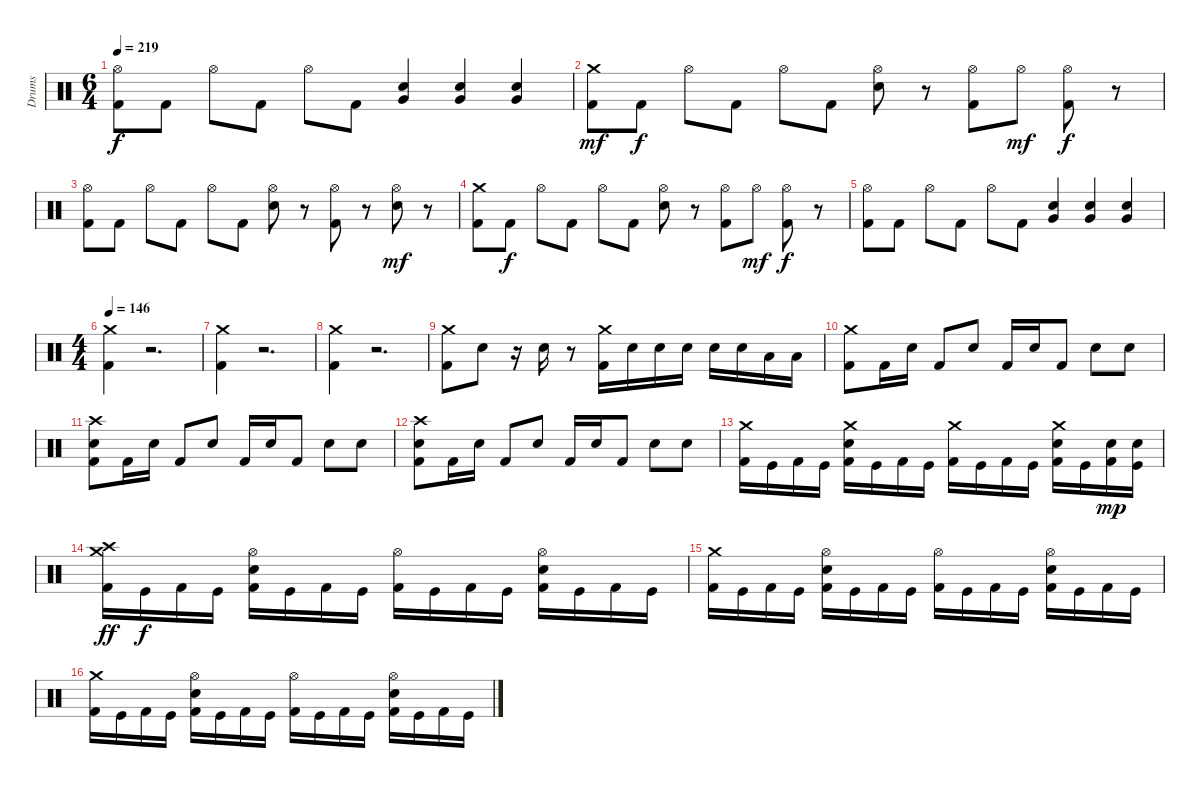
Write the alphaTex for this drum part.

\track ("Drums" "Drums") {instrument percussion}
\staff {score}
\articulation defaults
\ts (6 4)
\tempo 219
\clef neutral
\ks c
("Hi-Hat (open)" "Kick (hit) 2").8{dy f} "Kick (hit) 2".8 "Hi-Hat (open)".8 "Kick (hit) 2".8 "Hi-Hat (open)".8 "Kick (hit) 2".8 ("Very Low Tom (hit)" "Snare (hit) 2").4 ("Very Low Tom (hit)" "Snare (hit) 2").4 ("Very Low Tom (hit)" "Snare (hit) 2").4 |
("Crash medium (hit)" "Kick (hit) 2").8{dy mf} "Kick (hit) 2".8{dy f} "Hi-Hat (open)".8 "Kick (hit) 2".8 "Hi-Hat (open)".8 "Kick (hit) 2".8 ("Hi-Hat (open)" "Snare (hit) 2").8 r.8 ("Hi-Hat (open)" "Kick (hit) 2").8 "Hi-Hat (open)".8{dy mf} ("Hi-Hat (open)" "Kick (hit) 2").8{dy f} r.8 |
("Hi-Hat (open)" "Kick (hit) 2").8 "Kick (hit) 2".8 "Hi-Hat (open)".8 "Kick (hit) 2".8 "Hi-Hat (open)".8 "Kick (hit) 2".8 ("Hi-Hat (open)" "Snare (hit) 2").8 r.8 ("Hi-Hat (open)" "Kick (hit) 2").8 r.8 ("Hi-Hat (open)" "Snare (hit) 2").8{dy mf} r.8 |
("Crash medium (hit)" "Kick (hit) 2").8 "Kick (hit) 2".8{dy f} "Hi-Hat (open)".8 "Kick (hit) 2".8 "Hi-Hat (open)".8 "Kick (hit) 2".8 ("Hi-Hat (open)" "Snare (hit) 2").8 r.8 ("Hi-Hat (open)" "Kick (hit) 2").8 "Hi-Hat (open)".8{dy mf} ("Hi-Hat (open)" "Kick (hit) 2").8{dy f} r.8 |
("Hi-Hat (open)" "Kick (hit) 2").8 "Kick (hit) 2".8 "Hi-Hat (open)".8 "Kick (hit) 2".8 "Hi-Hat (open)".8 "Kick (hit) 2".8 ("Very Low Tom (hit)" "Snare (hit) 2").4 ("Very Low Tom (hit)" "Snare (hit) 2").4 ("Very Low Tom (hit)" "Snare (hit) 2").4 |
\ts (4 4)
\tempo 146
("Crash medium (hit)" "Kick (hit) 2").4 r.2{d} |
("Crash medium (hit)" "Kick (hit) 2").4 r.2{d} |
("Crash medium (hit)" "Kick (hit) 2").4 r.2{d} |
("Crash medium (hit)" "Kick (hit) 2").8 "Snare (hit) 2".8 r.16 "Snare (hit) 2".16 r.8 ("Crash medium (hit)" "Kick (hit) 2").16 "Snare (hit) 2".16 "Snare (hit) 2".16 "Snare (hit) 2".16 "Snare (hit) 2".16 "Snare (hit) 2".16 "Low Tom (hit)".16 "Low Tom (hit)".16 |
("Crash medium (hit)" "Kick (hit) 2").8 "Kick (hit) 2".16 "Snare (hit) 2".16 "Kick (hit) 2".8 "Snare (hit) 2".8 "Kick (hit) 2".16 "Snare (hit) 2".16 "Kick (hit) 2".8 "Snare (hit) 2".8 "Snare (hit) 2".8 |
("Crash high (hit)" "Snare (hit) 2" "Kick (hit) 2").8 "Kick (hit) 2".16 "Snare (hit) 2".16 "Kick (hit) 2".8 "Snare (hit) 2".8 "Kick (hit) 2".16 "Snare (hit) 2".16 "Kick (hit) 2".8 "Snare (hit) 2".8 "Snare (hit) 2".8 |
("Crash high (hit)" "Snare (hit) 2" "Kick (hit) 2").8 "Kick (hit) 2".16 "Snare (hit) 2".16 "Kick (hit) 2".8 "Snare (hit) 2".8 "Kick (hit) 2".16 "Snare (hit) 2".16 "Kick (hit) 2".8 "Snare (hit) 2".8 "Snare (hit) 2".8 |
("Crash medium (hit)" "Kick (hit) 2").16 "Kick (hit)".16 "Kick (hit) 2".16 "Kick (hit)".16 ("Crash medium (hit)" "Snare (hit) 2" "Kick (hit) 2").16 "Kick (hit)".16 "Kick (hit) 2".16 "Kick (hit)".16 ("Crash medium (hit)" "Kick (hit) 2").16 "Kick (hit)".16 "Kick (hit) 2".16 "Kick (hit)".16 ("Crash medium (hit)" "Snare (hit) 2" "Kick (hit) 2").16 "Kick (hit)".16 ("Snare (hit) 2" "Kick (hit) 2").16{dy mp} ("Snare (hit) 2" "Kick (hit)").16 |
("Crash medium (hit)" "Crash high (hit)" "Kick (hit) 2").16{dy ff} "Kick (hit)".16{dy f} "Kick (hit) 2".16 "Kick (hit)".16 ("Hi-Hat (open)" "Snare (hit) 2" "Kick (hit) 2").16 "Kick (hit)".16 "Kick (hit) 2".16 "Kick (hit)".16 ("Hi-Hat (open)" "Kick (hit) 2").16 "Kick (hit)".16 "Kick (hit) 2".16 "Kick (hit)".16 ("Hi-Hat (open)" "Snare (hit) 2" "Kick (hit) 2").16 "Kick (hit)".16 "Kick (hit) 2".16 "Kick (hit)".16 |
("Crash medium (hit)" "Kick (hit) 2").16 "Kick (hit)".16 "Kick (hit) 2".16 "Kick (hit)".16 ("Hi-Hat (open)" "Snare (hit) 2" "Kick (hit) 2").16 "Kick (hit)".16 "Kick (hit) 2".16 "Kick (hit)".16 ("Hi-Hat (open)" "Kick (hit) 2").16 "Kick (hit)".16 "Kick (hit) 2".16 "Kick (hit)".16 ("Hi-Hat (open)" "Snare (hit) 2" "Kick (hit) 2").16 "Kick (hit)".16 "Kick (hit) 2".16 "Kick (hit)".16 |
("Crash medium (hit)" "Kick (hit) 2").16 "Kick (hit)".16 "Kick (hit) 2".16 "Kick (hit)".16 ("Hi-Hat (open)" "Snare (hit) 2" "Kick (hit) 2").16 "Kick (hit)".16 "Kick (hit) 2".16 "Kick (hit)".16 ("Hi-Hat (open)" "Kick (hit) 2").16 "Kick (hit)".16 "Kick (hit) 2".16 "Kick (hit)".16 ("Hi-Hat (open)" "Snare (hit) 2" "Kick (hit) 2").16 "Kick (hit)".16 "Kick (hit) 2".16 "Kick (hit)".16
